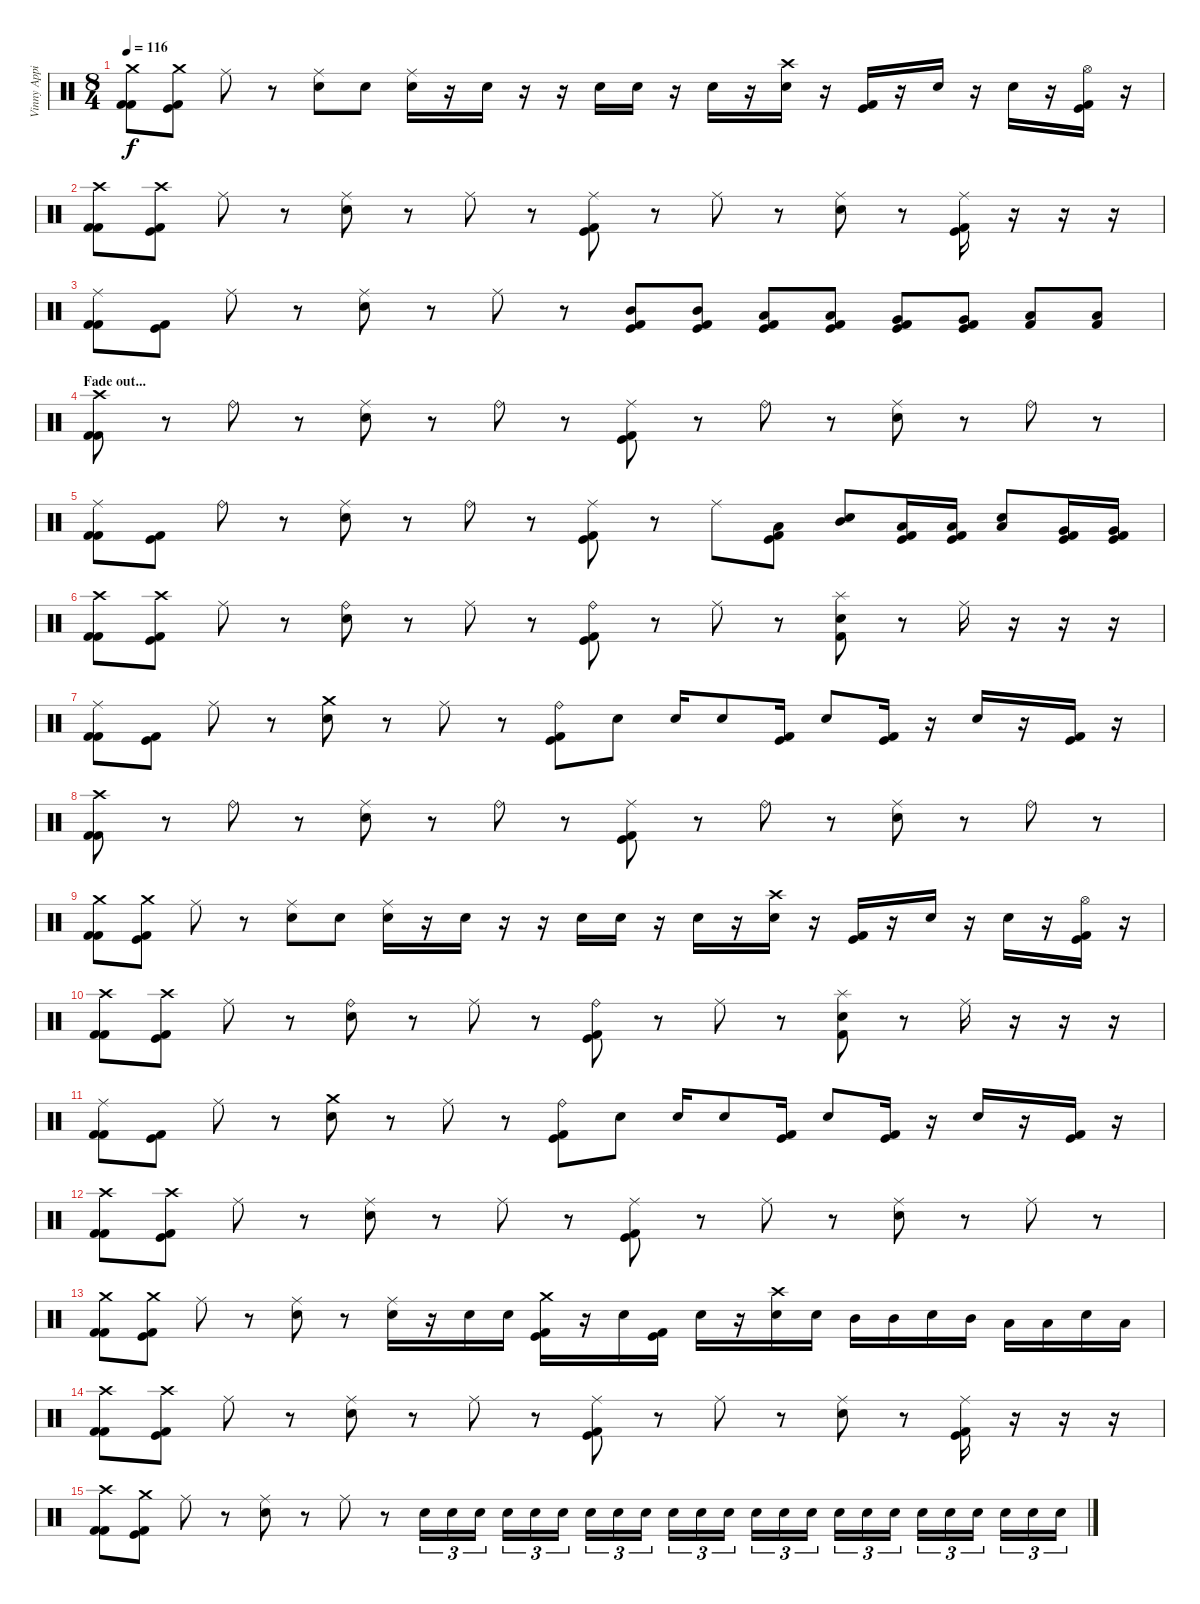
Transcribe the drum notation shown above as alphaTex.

\track ("Vinny Appice" "Vinny Appi") {instrument percussion}
\staff {score}
\articulation defaults
\ts (8 4)
\tempo 116
\clef neutral
\ks c
("Crash medium (hit)" "Kick (hit) 2" "Kick (hit) 2").8{dy f} ("Crash medium (hit)" "Kick (hit)" "Kick (hit) 2").8 "Ride (middle)".8 r.8 ("Ride (middle)" "Snare (hit) 2").8 "Snare (hit) 2".8 ("Ride (middle)" "Snare (hit) 2").16 r.16 "Snare (hit) 2".16 r.16 r.16 "Snare (hit) 2".16 "Snare (hit) 2".16 r.16 "Snare (hit) 2".16 r.16 ("Crash high (hit)" "Snare (hit) 2").16 r.16 ("Kick (hit)" "Kick (hit) 2").16 r.16 "Snare (hit) 2".16 r.16 "Snare (hit) 2".16 r.16 ("Hi-Hat (open)" "Kick (hit)" "Kick (hit) 2").16 r.16 |
("Crash high (hit)" "Kick (hit) 2" "Kick (hit) 2").8 ("Crash high (hit)" "Kick (hit)" "Kick (hit) 2").8 "Ride (middle)".8 r.8 ("Ride (middle)" "Snare (hit) 2").8 r.8 "Ride (middle)".8 r.8 ("Ride (middle)" "Kick (hit)" "Kick (hit) 2").8 r.8 "Ride (middle)".8 r.8 ("Ride (middle)" "Snare (hit) 2").8 r.8 ("Ride (middle)" "Kick (hit)" "Kick (hit) 2").16 r.16 r.16 r.16 |
("Ride (middle)" "Kick (hit) 2" "Kick (hit) 2").8 ("Kick (hit)" "Kick (hit) 2").8 "Ride (middle)".8 r.8 ("Ride (middle)" "Snare (hit) 2").8 r.8 "Ride (middle)".8 r.8 ("Mid Tom (hit)" "Kick (hit)" "Kick (hit) 2").8 ("Mid Tom (hit)" "Kick (hit)" "Kick (hit) 2").8 ("Low Tom (hit)" "Kick (hit)" "Kick (hit) 2").8 ("Low Tom (hit)" "Kick (hit)" "Kick (hit) 2").8 ("Very Low Tom (hit)" "Kick (hit)" "Kick (hit) 2").8 ("Very Low Tom (hit)" "Kick (hit)" "Kick (hit) 2").8 ("Low Floor Tom (hit)" "Kick (hit) 2").8 ("Low Floor Tom (hit)" "Kick (hit) 2").8 |
\section ("" "Fade out...")
("Crash high (hit)" "Kick (hit) 2" "Kick (hit) 2").8 r.8 "Ride (bell)".8 r.8 ("Ride (middle)" "Snare (hit) 2").8 r.8 "Ride (bell)".8 r.8 ("Ride (middle)" "Kick (hit)" "Kick (hit) 2").8 r.8 "Ride (bell)".8 r.8 ("Ride (middle)" "Snare (hit) 2").8 r.8 "Ride (bell)".8 r.8 |
("Ride (middle)" "Kick (hit) 2" "Kick (hit) 2").8 ("Kick (hit)" "Kick (hit) 2").8 "Ride (bell)".8 r.8 ("Ride (middle)" "Snare (hit) 2").8 r.8 "Ride (bell)".8 r.8 ("Ride (middle)" "Kick (hit)" "Kick (hit) 2").8 r.8 "Ride (middle)".8 ("Low Tom (hit)" "Kick (hit)" "Kick (hit) 2").8 ("Mid Tom (hit)" "Snare (hit) 2").8 ("Low Tom (hit)" "Kick (hit)" "Kick (hit) 2").16 ("Low Tom (hit)" "Kick (hit)" "Kick (hit) 2").16 ("Low Tom (hit)" "Snare (hit) 2").8 ("Very Low Tom (hit)" "Kick (hit)" "Kick (hit) 2").16 ("Very Low Tom (hit)" "Kick (hit)" "Kick (hit) 2").16 |
\section ("" "")
("Crash high (hit)" "Kick (hit) 2" "Kick (hit) 2").8 ("Crash high (hit)" "Kick (hit)" "Kick (hit) 2").8 "Ride (middle)".8 r.8 ("Ride (bell)" "Snare (hit) 2").8 r.8 "Ride (middle)".8 r.8 ("Ride (bell)" "Kick (hit)" "Kick (hit) 2").8 r.8 "Ride (middle)".8 r.8 ("Splash (hit)" "Snare (hit) 2" "Kick (hit) 2").8 r.8 "Ride (middle)".16 r.16 r.16 r.16 |
("Ride (middle)" "Kick (hit) 2" "Kick (hit) 2").8 ("Kick (hit)" "Kick (hit) 2").8 "Ride (middle)".8 r.8 ("Crash medium (hit)" "Snare (hit) 2").8 r.8 "Ride (middle)".8 r.8 ("Ride (bell)" "Kick (hit)" "Kick (hit) 2").8 "Snare (hit) 2".8 "Snare (hit) 2".16 "Snare (hit) 2".8 ("Kick (hit)" "Kick (hit) 2").16 "Snare (hit) 2".8 ("Kick (hit)" "Kick (hit) 2").16 r.16 "Snare (hit) 2".16 r.16 ("Kick (hit)" "Kick (hit) 2").16 r.16 |
("Crash high (hit)" "Kick (hit) 2" "Kick (hit) 2").8 r.8 "Ride (bell)".8 r.8 ("Ride (middle)" "Snare (hit) 2").8 r.8 "Ride (bell)".8 r.8 ("Ride (middle)" "Kick (hit)" "Kick (hit) 2").8 r.8 "Ride (bell)".8 r.8 ("Ride (middle)" "Snare (hit) 2").8 r.8 "Ride (bell)".8 r.8 |
("Crash medium (hit)" "Kick (hit) 2" "Kick (hit) 2").8 ("Crash medium (hit)" "Kick (hit)" "Kick (hit) 2").8 "Ride (middle)".8 r.8 ("Ride (middle)" "Snare (hit) 2").8 "Snare (hit) 2".8 ("Ride (middle)" "Snare (hit) 2").16 r.16 "Snare (hit) 2".16 r.16 r.16 "Snare (hit) 2".16 "Snare (hit) 2".16 r.16 "Snare (hit) 2".16 r.16 ("Crash high (hit)" "Snare (hit) 2").16 r.16 ("Kick (hit)" "Kick (hit) 2").16 r.16 "Snare (hit) 2".16 r.16 "Snare (hit) 2".16 r.16 ("Hi-Hat (open)" "Kick (hit)" "Kick (hit) 2").16 r.16 |
("Crash high (hit)" "Kick (hit) 2" "Kick (hit) 2").8 ("Crash high (hit)" "Kick (hit)" "Kick (hit) 2").8 "Ride (middle)".8 r.8 ("Ride (bell)" "Snare (hit) 2").8 r.8 "Ride (middle)".8 r.8 ("Ride (bell)" "Kick (hit)" "Kick (hit) 2").8 r.8 "Ride (middle)".8 r.8 ("Splash (hit)" "Snare (hit) 2" "Kick (hit) 2").8 r.8 "Ride (middle)".16 r.16 r.16 r.16 |
("Ride (middle)" "Kick (hit) 2" "Kick (hit) 2").8 ("Kick (hit)" "Kick (hit) 2").8 "Ride (middle)".8 r.8 ("Crash medium (hit)" "Snare (hit) 2").8 r.8 "Ride (middle)".8 r.8 ("Ride (bell)" "Kick (hit)" "Kick (hit) 2").8 "Snare (hit) 2".8 "Snare (hit) 2".16 "Snare (hit) 2".8 ("Kick (hit)" "Kick (hit) 2").16 "Snare (hit) 2".8 ("Kick (hit)" "Kick (hit) 2").16 r.16 "Snare (hit) 2".16 r.16 ("Kick (hit)" "Kick (hit) 2").16 r.16 |
("Crash high (hit)" "Kick (hit) 2" "Kick (hit) 2").8 ("Crash high (hit)" "Kick (hit)" "Kick (hit) 2").8 "Ride (middle)".8 r.8 ("Ride (middle)" "Snare (hit) 2").8 r.8 "Ride (middle)".8 r.8 ("Ride (middle)" "Kick (hit)" "Kick (hit) 2").8 r.8 "Ride (middle)".8 r.8 ("Ride (middle)" "Snare (hit) 2").8 r.8 "Ride (middle)".8 r.8 |
("Crash medium (hit)" "Kick (hit) 2" "Kick (hit) 2").8 ("Crash medium (hit)" "Kick (hit)" "Kick (hit) 2").8 "Ride (middle)".8 r.8 ("Ride (middle)" "Snare (hit) 2").8 r.8 ("Ride (middle)" "Snare (hit) 2").16 r.16 "Snare (hit) 2".16 "Snare (hit) 2".16 ("Crash medium (hit)" "Kick (hit)" "Kick (hit) 2").16 r.16 "Snare (hit) 2".16 ("Kick (hit)" "Kick (hit) 2").16 "Snare (hit) 2".16 r.16 ("Crash high (hit)" "Snare (hit) 2").16 "Snare (hit) 2".16 "Mid Tom (hit)".16 "Mid Tom (hit)".16 "Snare (hit) 2".16 "Mid Tom (hit)".16 "Low Tom (hit)".16 "Low Tom (hit)".16 "Snare (hit) 2".16 "Low Tom (hit)".16 |
("Crash high (hit)" "Kick (hit) 2" "Kick (hit) 2").8 ("Crash high (hit)" "Kick (hit)" "Kick (hit) 2").8 "Ride (middle)".8 r.8 ("Ride (middle)" "Snare (hit) 2").8 r.8 "Ride (middle)".8 r.8 ("Ride (middle)" "Kick (hit)" "Kick (hit) 2").8 r.8 "Ride (middle)".8 r.8 ("Ride (middle)" "Snare (hit) 2").8 r.8 ("Ride (middle)" "Kick (hit)" "Kick (hit) 2").16 r.16 r.16 r.16 |
("Crash high (hit)" "Kick (hit) 2" "Kick (hit) 2").8 ("Crash medium (hit)" "Kick (hit)" "Kick (hit) 2").8 "Ride (middle)".8 r.8 ("Ride (middle)" "Snare (hit) 2").8 r.8 "Ride (middle)".8 r.8 "Snare (hit) 2".16{tu (3 2)} "Snare (hit) 2".16{tu (3 2)} "Snare (hit) 2".16{tu (3 2)} "Snare (hit) 2".16{tu (3 2)} "Snare (hit) 2".16{tu (3 2)} "Snare (hit) 2".16{tu (3 2)} "Snare (hit) 2".16{tu (3 2)} "Snare (hit) 2".16{tu (3 2)} "Snare (hit) 2".16{tu (3 2)} "Snare (hit) 2".16{tu (3 2)} "Snare (hit) 2".16{tu (3 2)} "Snare (hit) 2".16{tu (3 2)} "Snare (hit) 2".16{tu (3 2)} "Snare (hit) 2".16{tu (3 2)} "Snare (hit) 2".16{tu (3 2)} "Snare (hit) 2".16{tu (3 2)} "Snare (hit) 2".16{tu (3 2)} "Snare (hit) 2".16{tu (3 2)} "Snare (hit) 2".16{tu (3 2)} "Snare (hit) 2".16{tu (3 2)} "Snare (hit) 2".16{tu (3 2)} "Snare (hit) 2".16{tu (3 2)} "Snare (hit) 2".16{tu (3 2)} "Snare (hit) 2".16{tu (3 2)}
